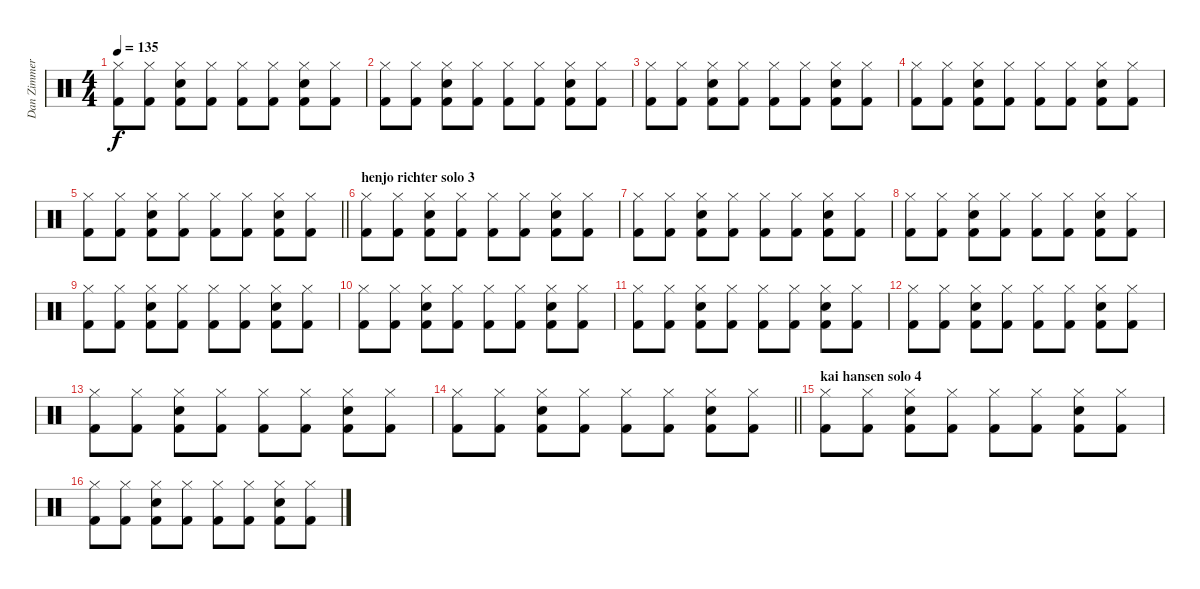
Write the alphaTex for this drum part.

\track ("Dan Zimmerman" "Dan Zimmer") {instrument percussion}
\staff {score}
\articulation defaults
\ts (4 4)
\tempo 135
\clef neutral
\ks c
("Hi-Hat (closed)" "Kick (hit) 2").8{dy f} ("Hi-Hat (closed)" "Kick (hit) 2").8 ("Snare (hit) 2" "Hi-Hat (closed)" "Kick (hit) 2").8 ("Hi-Hat (closed)" "Kick (hit) 2").8 ("Hi-Hat (closed)" "Kick (hit) 2").8 ("Hi-Hat (closed)" "Kick (hit) 2").8 ("Snare (hit) 2" "Hi-Hat (closed)" "Kick (hit) 2").8 ("Hi-Hat (closed)" "Kick (hit) 2").8 |
("Hi-Hat (closed)" "Kick (hit) 2").8 ("Hi-Hat (closed)" "Kick (hit) 2").8 ("Snare (hit) 2" "Hi-Hat (closed)" "Kick (hit) 2").8 ("Hi-Hat (closed)" "Kick (hit) 2").8 ("Hi-Hat (closed)" "Kick (hit) 2").8 ("Hi-Hat (closed)" "Kick (hit) 2").8 ("Snare (hit) 2" "Hi-Hat (closed)" "Kick (hit) 2").8 ("Hi-Hat (closed)" "Kick (hit) 2").8 |
("Hi-Hat (closed)" "Kick (hit) 2").8 ("Hi-Hat (closed)" "Kick (hit) 2").8 ("Snare (hit) 2" "Hi-Hat (closed)" "Kick (hit) 2").8 ("Hi-Hat (closed)" "Kick (hit) 2").8 ("Hi-Hat (closed)" "Kick (hit) 2").8 ("Hi-Hat (closed)" "Kick (hit) 2").8 ("Snare (hit) 2" "Hi-Hat (closed)" "Kick (hit) 2").8 ("Hi-Hat (closed)" "Kick (hit) 2").8 |
("Hi-Hat (closed)" "Kick (hit) 2").8 ("Hi-Hat (closed)" "Kick (hit) 2").8 ("Snare (hit) 2" "Hi-Hat (closed)" "Kick (hit) 2").8 ("Hi-Hat (closed)" "Kick (hit) 2").8 ("Hi-Hat (closed)" "Kick (hit) 2").8 ("Hi-Hat (closed)" "Kick (hit) 2").8 ("Snare (hit) 2" "Hi-Hat (closed)" "Kick (hit) 2").8 ("Hi-Hat (closed)" "Kick (hit) 2").8 |
\barLineRight lightlight
("Hi-Hat (closed)" "Kick (hit) 2").8 ("Hi-Hat (closed)" "Kick (hit) 2").8 ("Snare (hit) 2" "Hi-Hat (closed)" "Kick (hit) 2").8 ("Hi-Hat (closed)" "Kick (hit) 2").8 ("Hi-Hat (closed)" "Kick (hit) 2").8 ("Hi-Hat (closed)" "Kick (hit) 2").8 ("Snare (hit) 2" "Hi-Hat (closed)" "Kick (hit) 2").8 ("Hi-Hat (closed)" "Kick (hit) 2").8 |
\section ("" "henjo richter solo 3")
("Hi-Hat (closed)" "Kick (hit) 2").8 ("Hi-Hat (closed)" "Kick (hit) 2").8 ("Snare (hit) 2" "Hi-Hat (closed)" "Kick (hit) 2").8 ("Hi-Hat (closed)" "Kick (hit) 2").8 ("Hi-Hat (closed)" "Kick (hit) 2").8 ("Hi-Hat (closed)" "Kick (hit) 2").8 ("Snare (hit) 2" "Hi-Hat (closed)" "Kick (hit) 2").8 ("Hi-Hat (closed)" "Kick (hit) 2").8 |
("Hi-Hat (closed)" "Kick (hit) 2").8 ("Hi-Hat (closed)" "Kick (hit) 2").8 ("Snare (hit) 2" "Hi-Hat (closed)" "Kick (hit) 2").8 ("Hi-Hat (closed)" "Kick (hit) 2").8 ("Hi-Hat (closed)" "Kick (hit) 2").8 ("Hi-Hat (closed)" "Kick (hit) 2").8 ("Snare (hit) 2" "Hi-Hat (closed)" "Kick (hit) 2").8 ("Hi-Hat (closed)" "Kick (hit) 2").8 |
("Hi-Hat (closed)" "Kick (hit) 2").8 ("Hi-Hat (closed)" "Kick (hit) 2").8 ("Snare (hit) 2" "Hi-Hat (closed)" "Kick (hit) 2").8 ("Hi-Hat (closed)" "Kick (hit) 2").8 ("Hi-Hat (closed)" "Kick (hit) 2").8 ("Hi-Hat (closed)" "Kick (hit) 2").8 ("Snare (hit) 2" "Hi-Hat (closed)" "Kick (hit) 2").8 ("Hi-Hat (closed)" "Kick (hit) 2").8 |
("Hi-Hat (closed)" "Kick (hit) 2").8 ("Hi-Hat (closed)" "Kick (hit) 2").8 ("Snare (hit) 2" "Hi-Hat (closed)" "Kick (hit) 2").8 ("Hi-Hat (closed)" "Kick (hit) 2").8 ("Hi-Hat (closed)" "Kick (hit) 2").8 ("Hi-Hat (closed)" "Kick (hit) 2").8 ("Snare (hit) 2" "Hi-Hat (closed)" "Kick (hit) 2").8 ("Hi-Hat (closed)" "Kick (hit) 2").8 |
("Hi-Hat (closed)" "Kick (hit) 2").8 ("Hi-Hat (closed)" "Kick (hit) 2").8 ("Snare (hit) 2" "Hi-Hat (closed)" "Kick (hit) 2").8 ("Hi-Hat (closed)" "Kick (hit) 2").8 ("Hi-Hat (closed)" "Kick (hit) 2").8 ("Hi-Hat (closed)" "Kick (hit) 2").8 ("Snare (hit) 2" "Hi-Hat (closed)" "Kick (hit) 2").8 ("Hi-Hat (closed)" "Kick (hit) 2").8 |
("Hi-Hat (closed)" "Kick (hit) 2").8 ("Hi-Hat (closed)" "Kick (hit) 2").8 ("Snare (hit) 2" "Hi-Hat (closed)" "Kick (hit) 2").8 ("Hi-Hat (closed)" "Kick (hit) 2").8 ("Hi-Hat (closed)" "Kick (hit) 2").8 ("Hi-Hat (closed)" "Kick (hit) 2").8 ("Snare (hit) 2" "Hi-Hat (closed)" "Kick (hit) 2").8 ("Hi-Hat (closed)" "Kick (hit) 2").8 |
("Hi-Hat (closed)" "Kick (hit) 2").8 ("Hi-Hat (closed)" "Kick (hit) 2").8 ("Snare (hit) 2" "Hi-Hat (closed)" "Kick (hit) 2").8 ("Hi-Hat (closed)" "Kick (hit) 2").8 ("Hi-Hat (closed)" "Kick (hit) 2").8 ("Hi-Hat (closed)" "Kick (hit) 2").8 ("Snare (hit) 2" "Hi-Hat (closed)" "Kick (hit) 2").8 ("Hi-Hat (closed)" "Kick (hit) 2").8 |
("Hi-Hat (closed)" "Kick (hit) 2").8 ("Hi-Hat (closed)" "Kick (hit) 2").8 ("Snare (hit) 2" "Hi-Hat (closed)" "Kick (hit) 2").8 ("Hi-Hat (closed)" "Kick (hit) 2").8 ("Hi-Hat (closed)" "Kick (hit) 2").8 ("Hi-Hat (closed)" "Kick (hit) 2").8 ("Snare (hit) 2" "Hi-Hat (closed)" "Kick (hit) 2").8 ("Hi-Hat (closed)" "Kick (hit) 2").8 |
\barLineRight lightlight
("Hi-Hat (closed)" "Kick (hit) 2").8 ("Hi-Hat (closed)" "Kick (hit) 2").8 ("Snare (hit) 2" "Hi-Hat (closed)" "Kick (hit) 2").8 ("Hi-Hat (closed)" "Kick (hit) 2").8 ("Hi-Hat (closed)" "Kick (hit) 2").8 ("Hi-Hat (closed)" "Kick (hit) 2").8 ("Snare (hit) 2" "Hi-Hat (closed)" "Kick (hit) 2").8 ("Hi-Hat (closed)" "Kick (hit) 2").8 |
\section ("" "kai hansen solo 4")
("Hi-Hat (closed)" "Kick (hit) 2").8 ("Hi-Hat (closed)" "Kick (hit) 2").8 ("Snare (hit) 2" "Hi-Hat (closed)" "Kick (hit) 2").8 ("Hi-Hat (closed)" "Kick (hit) 2").8 ("Hi-Hat (closed)" "Kick (hit) 2").8 ("Hi-Hat (closed)" "Kick (hit) 2").8 ("Snare (hit) 2" "Hi-Hat (closed)" "Kick (hit) 2").8 ("Hi-Hat (closed)" "Kick (hit) 2").8 |
("Hi-Hat (closed)" "Kick (hit) 2").8 ("Hi-Hat (closed)" "Kick (hit) 2").8 ("Snare (hit) 2" "Hi-Hat (closed)" "Kick (hit) 2").8 ("Hi-Hat (closed)" "Kick (hit) 2").8 ("Hi-Hat (closed)" "Kick (hit) 2").8 ("Hi-Hat (closed)" "Kick (hit) 2").8 ("Snare (hit) 2" "Hi-Hat (closed)" "Kick (hit) 2").8 ("Hi-Hat (closed)" "Kick (hit) 2").8
